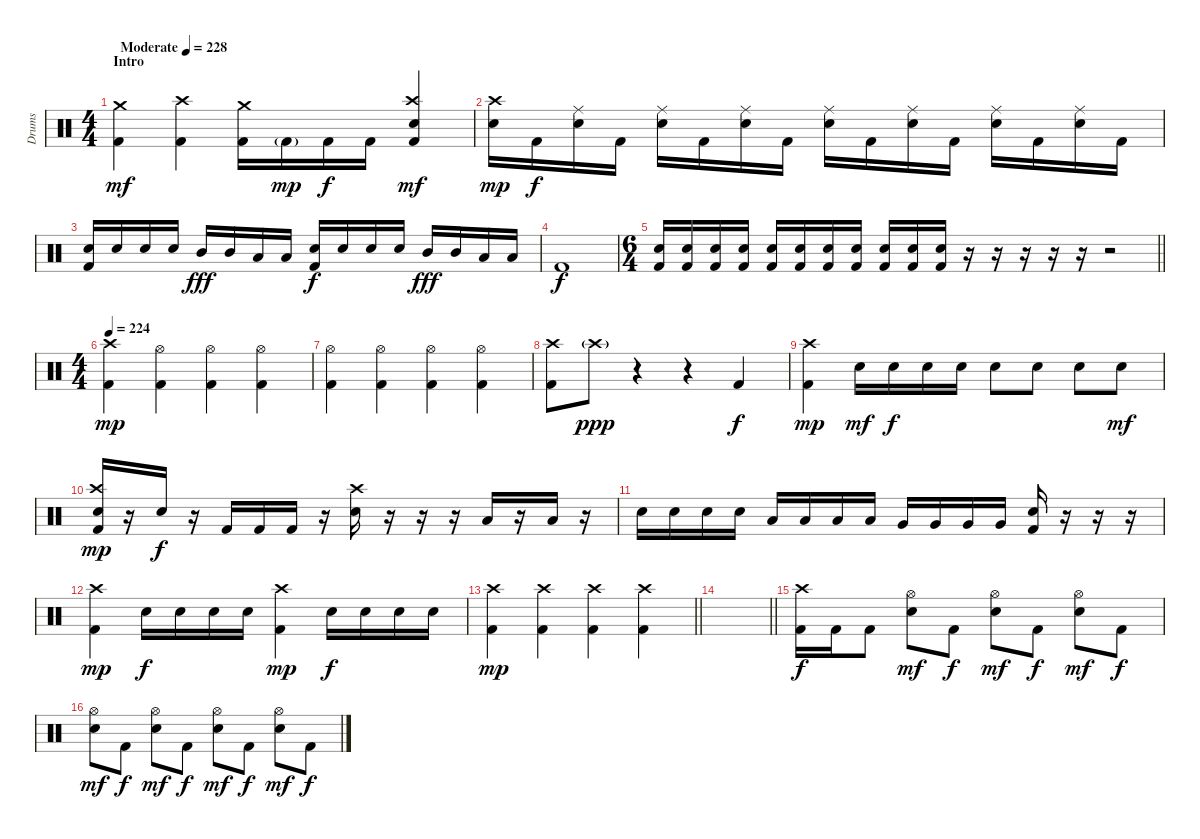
\track ("Drums" "Drums") {instrument percussion}
\staff {score}
\articulation defaults
\ts (4 4)
\section ("" "Intro")
\tempo (228 "Moderate")
\clef neutral
\ks c
("Crash medium (hit)" "Kick (hit) 2").4{dy mf} ("Crash high (hit)" "Kick (hit) 2").4 ("Crash medium (hit)" "Kick (hit) 2").16 "Kick (hit) 2"{g}.16{dy mp} "Kick (hit) 2".16{dy f} "Kick (hit) 2".16 ("Crash high (hit)" "Snare (hit) 2" "Kick (hit) 2").4{dy mf} |
("Crash high (hit)" "Snare (hit) 2").16{dy mp} "Kick (hit) 2".16{dy f} ("Ride (middle)" "Snare (hit) 2").16 "Kick (hit) 2".16 ("Ride (middle)" "Snare (hit) 2").16 "Kick (hit) 2".16 ("Ride (middle)" "Snare (hit) 2").16 "Kick (hit) 2".16 ("Ride (middle)" "Snare (hit) 2").16 "Kick (hit) 2".16 ("Ride (middle)" "Snare (hit) 2").16 "Kick (hit) 2".16 ("Ride (middle)" "Snare (hit) 2").16 "Kick (hit) 2".16 ("Ride (middle)" "Snare (hit) 2").16 "Kick (hit) 2".16 |
("Snare (hit) 2" "Kick (hit) 2").16 "Snare (hit) 2".16 "Snare (hit) 2".16 "Snare (hit) 2".16 "Mid Tom (hit)".16{dy fff} "Mid Tom (hit)".16 "Low Tom (hit)".16 "Low Tom (hit)".16 ("Snare (hit) 2" "Kick (hit) 2").16{dy f} "Snare (hit) 2".16 "Snare (hit) 2".16 "Snare (hit) 2".16 "Mid Tom (hit)".16{dy fff} "Mid Tom (hit)".16 "Low Tom (hit)".16 "Low Tom (hit)".16 |
"Kick (hit) 2".1{dy f} |
\ts (6 4)
\barLineRight lightlight
("Snare (hit) 2" "Kick (hit) 2").16 ("Snare (hit) 2" "Kick (hit) 2").16 ("Snare (hit) 2" "Kick (hit) 2").16 ("Snare (hit) 2" "Kick (hit) 2").16 ("Snare (hit) 2" "Kick (hit) 2").16 ("Snare (hit) 2" "Kick (hit) 2").16 ("Snare (hit) 2" "Kick (hit) 2").16 ("Snare (hit) 2" "Kick (hit) 2").16 ("Snare (hit) 2" "Kick (hit) 2").16 ("Snare (hit) 2" "Kick (hit) 2").16 ("Snare (hit) 2" "Kick (hit) 2").16 r.16 r.16 r.16 r.16 r.16 r.2 |
\ts (4 4)
\tempo 224
("Crash high (hit)" "Kick (hit) 2").4{dy mp} ("Hi-Hat (open)" "Kick (hit) 2").4 ("Hi-Hat (open)" "Kick (hit) 2").4 ("Hi-Hat (open)" "Kick (hit) 2").4 |
("Hi-Hat (open)" "Kick (hit) 2").4 ("Hi-Hat (open)" "Kick (hit) 2").4 ("Hi-Hat (open)" "Kick (hit) 2").4 ("Hi-Hat (open)" "Kick (hit) 2").4 |
("Crash high (hit)" "Kick (hit) 2").8 "Crash high (hit)"{g}.8{dy ppp} r.4 r.4 "Kick (hit) 2".4{dy f} |
("Crash high (hit)" "Kick (hit) 2").4{dy mp} "Snare (hit) 2".16{dy mf} "Snare (hit) 2".16{dy f} "Snare (hit) 2".16 "Snare (hit) 2".16 "Snare (hit) 2".8 "Snare (hit) 2".8 "Snare (hit) 2".8 "Snare (hit) 2".8{dy mf} |
("Crash high (hit)" "Snare (hit) 2" "Kick (hit) 2").16{dy mp} r.16 "Snare (hit) 2".16{dy f} r.16 "Kick (hit) 2".16 "Kick (hit) 2".16 "Kick (hit) 2".16 r.16 ("Crash high (hit)" "Snare (hit) 2").16 r.16 r.16 r.16 "Low Tom (hit)".16 r.16 "Low Tom (hit)".16 r.16 |
"Snare (hit) 2".16 "Snare (hit) 2".16 "Snare (hit) 2".16 "Snare (hit) 2".16 "Low Tom (hit)".16 "Low Tom (hit)".16 "Low Tom (hit)".16 "Low Tom (hit)".16 "Very Low Tom (hit)".16 "Very Low Tom (hit)".16 "Very Low Tom (hit)".16 "Very Low Tom (hit)".16 ("Snare (hit) 2" "Kick (hit) 2").16 r.16 r.16 r.16 |
("Crash high (hit)" "Kick (hit) 2").4{dy mp} "Snare (hit) 2".16{dy f} "Snare (hit) 2".16 "Snare (hit) 2".16 "Snare (hit) 2".16 ("Crash high (hit)" "Kick (hit) 2").4{dy mp} "Snare (hit) 2".16{dy f} "Snare (hit) 2".16 "Snare (hit) 2".16 "Snare (hit) 2".16 |
\barLineRight lightlight
("Crash high (hit)" "Kick (hit) 2").4{dy mp} ("Crash high (hit)" "Kick (hit) 2").4 ("Crash high (hit)" "Kick (hit) 2").4 ("Crash high (hit)" "Kick (hit) 2").4 |
\barLineRight lightlight
|
("Crash high (hit)" "Kick (hit) 2").16{dy f} "Kick (hit) 2".16 "Kick (hit) 2".8 ("Hi-Hat (open)" "Snare (hit) 2").8{dy mf} "Kick (hit) 2".8{dy f} ("Hi-Hat (open)" "Snare (hit) 2").8{dy mf} "Kick (hit) 2".8{dy f} ("Hi-Hat (open)" "Snare (hit) 2").8{dy mf} "Kick (hit) 2".8{dy f} |
("Hi-Hat (open)" "Snare (hit) 2").8{dy mf} "Kick (hit) 2".8{dy f} ("Hi-Hat (open)" "Snare (hit) 2").8{dy mf} "Kick (hit) 2".8{dy f} ("Hi-Hat (open)" "Snare (hit) 2").8{dy mf} "Kick (hit) 2".8{dy f} ("Hi-Hat (open)" "Snare (hit) 2").8{dy mf} "Kick (hit) 2".8{dy f}
